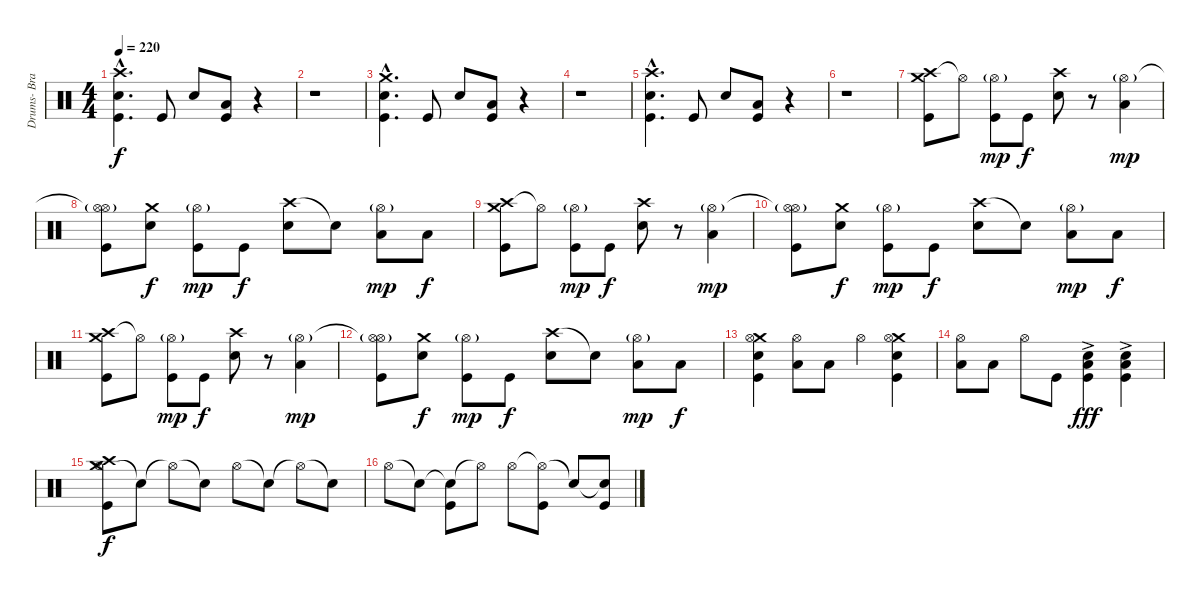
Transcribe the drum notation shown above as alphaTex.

\track ("Drums- Branden Steineckert" "Drums- Bra") {instrument percussion}
\staff {score}
\articulation defaults
\ts (4 4)
\tempo 220
\clef neutral
\ks c
("Crash high (hit)"{hac} "Snare (hit) 2"{hac} "Kick (hit)"{hac}).4{d dy f} "Kick (hit)".8 "Snare (hit) 2".8 ("Low Floor Tom (hit)" "Kick (hit)").8 r.4 |
r.1 |
("Crash medium (hit)"{hac} "Snare (hit) 2"{hac} "Kick (hit)"{hac}).4{d} "Kick (hit)".8 "Snare (hit) 2".8 ("Low Floor Tom (hit)" "Kick (hit)").8 r.4 |
r.1 |
("Crash high (hit)"{hac} "Snare (hit) 2"{hac} "Kick (hit)"{hac}).4{d} "Kick (hit)".8 "Snare (hit) 2".8 ("Low Floor Tom (hit)" "Kick (hit)").8 r.4 |
r.1 |
("Crash high (hit)" "Crash medium (hit)" "Kick (hit)").8 "Hi-Hat (open)"{t}.8 ("Hi-Hat (open)"{g} "Kick (hit)").8{dy mp} "Kick (hit)".8{dy f} ("Crash high (hit)" "Snare (hit) 2").8 r.8 ("Hi-Hat (open)"{g} "Low Tom (hit)").4{dy mp} |
("Hi-Hat (open)"{t} "Hi-Hat (open)"{g} "Kick (hit)").8 ("Crash medium (hit)" "Snare (hit) 2").8{dy f} ("Hi-Hat (open)"{g} "Kick (hit)").8{dy mp} "Kick (hit)".8{dy f} ("Crash high (hit)" "Snare (hit) 2").8 "Snare (hit)"{t}.8 ("Hi-Hat (open)"{g} "Low Floor Tom (hit)").8{dy mp} "Low Floor Tom (hit)".8{dy f} |
("Crash high (hit)" "Crash medium (hit)" "Kick (hit)").8 "Hi-Hat (open)"{t}.8 ("Hi-Hat (open)"{g} "Kick (hit)").8{dy mp} "Kick (hit)".8{dy f} ("Crash high (hit)" "Snare (hit) 2").8 r.8 ("Hi-Hat (open)"{g} "Low Tom (hit)").4{dy mp} |
("Hi-Hat (open)"{t} "Hi-Hat (open)"{g} "Kick (hit)").8 ("Crash medium (hit)" "Snare (hit) 2").8{dy f} ("Hi-Hat (open)"{g} "Kick (hit)").8{dy mp} "Kick (hit)".8{dy f} ("Crash high (hit)" "Snare (hit) 2").8 "Snare (hit)"{t}.8 ("Hi-Hat (open)"{g} "Low Floor Tom (hit)").8{dy mp} "Low Floor Tom (hit)".8{dy f} |
("Crash high (hit)" "Crash medium (hit)" "Kick (hit)").8 "Hi-Hat (open)"{t}.8 ("Hi-Hat (open)"{g} "Kick (hit)").8{dy mp} "Kick (hit)".8{dy f} ("Crash high (hit)" "Snare (hit) 2").8 r.8 ("Hi-Hat (open)"{g} "Low Tom (hit)").4{dy mp} |
("Hi-Hat (open)"{t} "Hi-Hat (open)"{g} "Kick (hit)").8 ("Crash medium (hit)" "Snare (hit) 2").8{dy f} ("Hi-Hat (open)"{g} "Kick (hit)").8{dy mp} "Kick (hit)".8{dy f} ("Crash high (hit)" "Snare (hit) 2").8 "Snare (hit)"{t}.8 ("Hi-Hat (open)"{g} "Low Floor Tom (hit)").8{dy mp} "Low Floor Tom (hit)".8{dy f} |
("Crash medium (hit)" "Hi-Hat (open)" "Snare (hit) 2" "Kick (hit)").4 ("Hi-Hat (open)" "Low Tom (hit)").8 "Low Tom (hit)".8 "Hi-Hat (open)".4 ("Crash medium (hit)" "Hi-Hat (open)" "Snare (hit) 2" "Kick (hit)").4 |
("Hi-Hat (open)" "Low Tom (hit)").8 "Low Tom (hit)".8 "Hi-Hat (open)".8 "Kick (hit)".8 ("Low Floor Tom (hit)"{ac} "Snare (hit) 2"{ac} "Kick (hit)"{ac}).4{dy fff} ("Low Floor Tom (hit)"{ac} "Snare (hit) 2"{ac} "Kick (hit)"{ac}).4 |
("Crash medium (hit)" "Crash high (hit)" "Hi-Hat (open)" "Kick (hit)").8{dy f} "Snare (hit)"{t}.8 "Hi-Hat (open)"{t}.8 "Snare (hit)"{t}.8 "Hi-Hat (open)".8 "Snare (hit)"{t}.8 "Hi-Hat (open)"{t}.8 "Snare (hit)"{t}.8 |
"Hi-Hat (open)".8 "Snare (hit)"{t}.8 ("Snare (hit)"{t} "Kick (hit)").8 "Hi-Hat (open)"{t}.8 "Hi-Hat (open)".8 ("Hi-Hat (open)"{t} "Kick (hit)").8 "Snare (hit)"{t}.8 ("Snare (hit)"{t} "Kick (hit)").8
